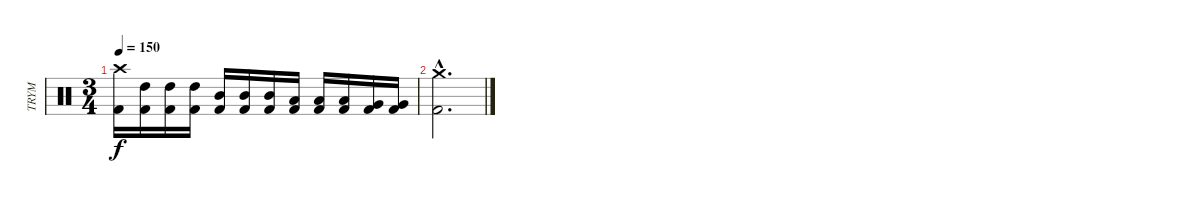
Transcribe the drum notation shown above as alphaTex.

\track ("TRYM" "TRYM") {instrument percussion}
\staff {score}
\articulation defaults
\ts (3 4)
\tempo 150
\clef neutral
\ks c
("Kick (hit) 2" "Crash high (hit)").16{dy f} ("Kick (hit) 2" "High Tom (hit)").16 ("Kick (hit) 2" "High Tom (hit)").16 ("Kick (hit) 2" "High Tom (hit)").16 ("Kick (hit) 2" "Mid Tom (hit)").16 ("Kick (hit) 2" "Mid Tom (hit)").16 ("Kick (hit) 2" "Mid Tom (hit)").16 ("Kick (hit) 2" "Low Tom (hit)").16 ("Kick (hit) 2" "Low Tom (hit)").16 ("Kick (hit) 2" "Low Tom (hit)").16 ("Kick (hit) 2" "Very Low Tom (hit)").16 ("Kick (hit) 2" "Very Low Tom (hit)").16 |
("Kick (hit) 2"{hac} "Crash medium (hit)"{hac}).2{d}
